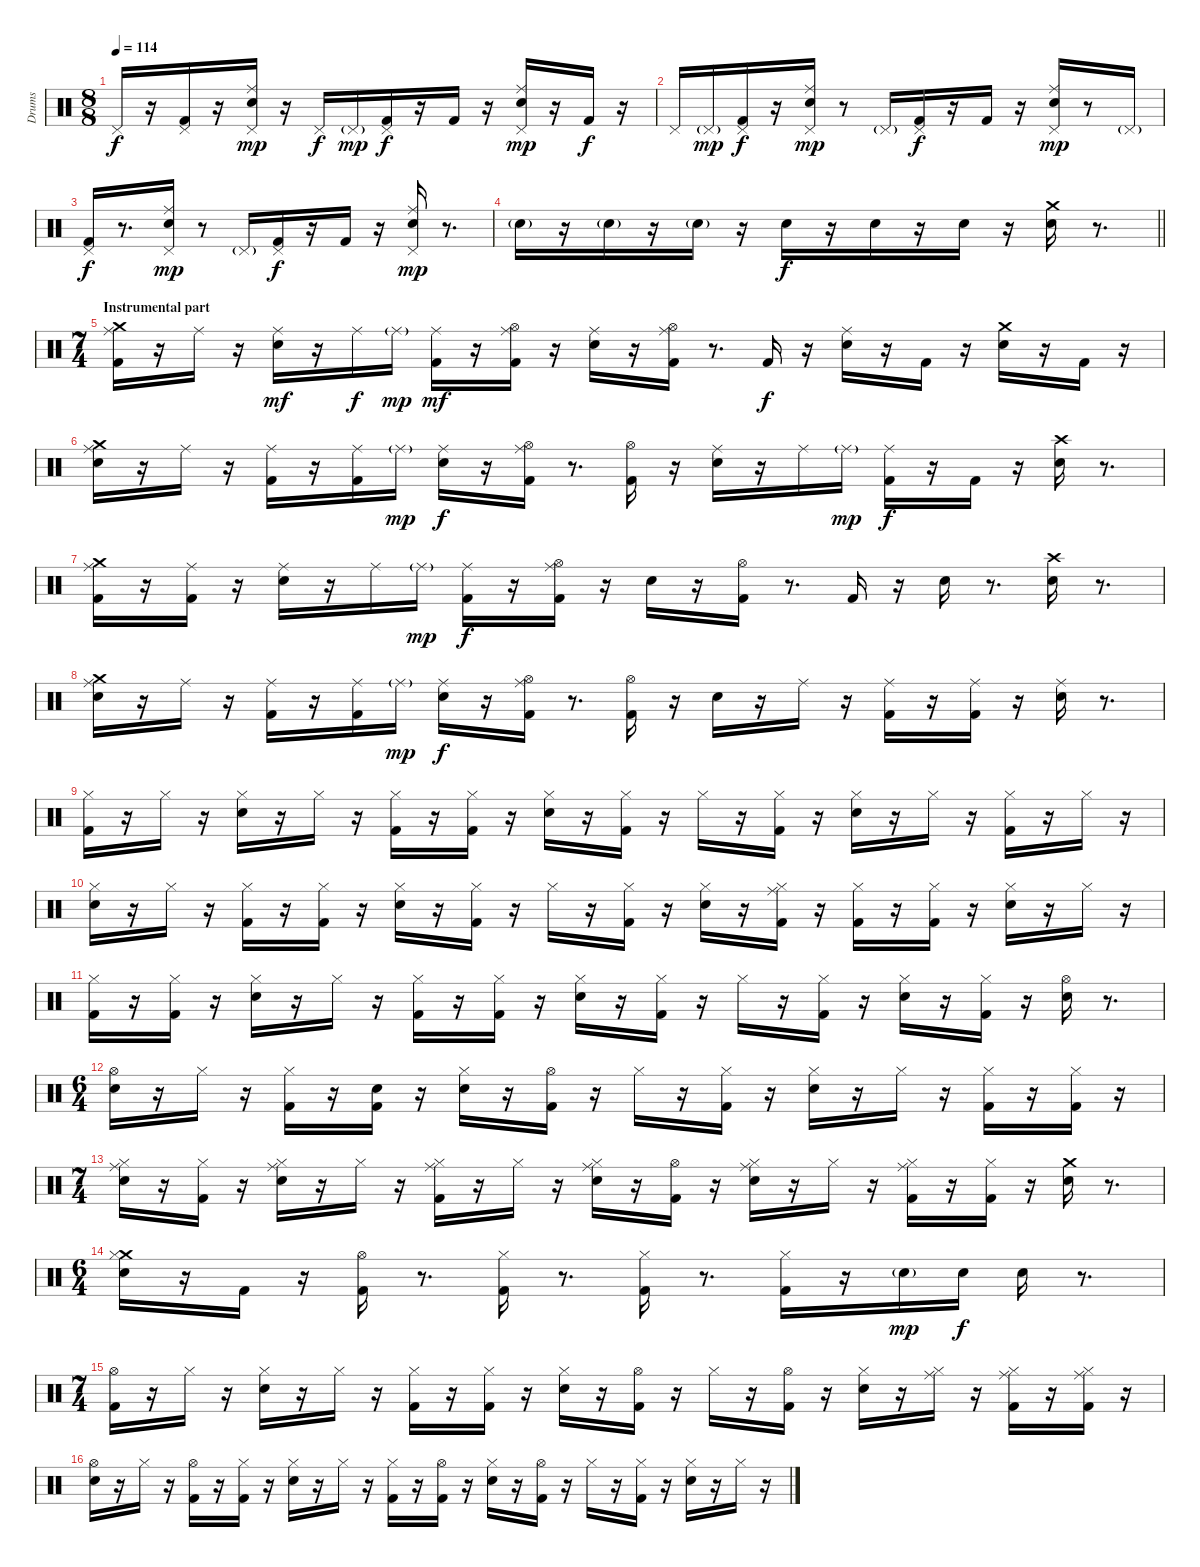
\track ("Drums" "Drums") {instrument percussion}
\staff {score}
\articulation defaults
\ts (8 8)
\tempo 114
\clef neutral
\ks c "Pedal Hi-Hat (hit)".16{dy f}
r.16 ("Pedal Hi-Hat (hit)" "Kick (hit) 2").16 r.16 ("Ride (middle)" "Pedal Hi-Hat (hit)" "Snare (hit) 2").16{dy mp} r.16 "Pedal Hi-Hat (hit)".16{dy f} "Pedal Hi-Hat (hit)"{g}.16{dy mp} ("Pedal Hi-Hat (hit)" "Kick (hit) 2").16{dy f} r.16 "Kick (hit) 2".16 r.16 ("Ride (middle)" "Pedal Hi-Hat (hit)" "Snare (hit) 2").16{dy mp} r.16 "Kick (hit) 2".16{dy f} r.16 |
"Pedal Hi-Hat (hit)".16 "Pedal Hi-Hat (hit)"{g}.16{dy mp} ("Pedal Hi-Hat (hit)" "Kick (hit) 2").16{dy f} r.16 ("Ride (middle)" "Pedal Hi-Hat (hit)" "Snare (hit) 2").16{dy mp} r.8 "Pedal Hi-Hat (hit)"{g}.16 ("Pedal Hi-Hat (hit)" "Kick (hit) 2").16{dy f} r.16 "Kick (hit) 2".16 r.16 ("Ride (middle)" "Pedal Hi-Hat (hit)" "Snare (hit) 2").16{dy mp} r.8 "Pedal Hi-Hat (hit)"{g}.16 |
("Pedal Hi-Hat (hit)" "Kick (hit) 2").16{dy f} r.8{d} ("Ride (middle)" "Pedal Hi-Hat (hit)" "Snare (hit) 2").16{dy mp} r.8 "Pedal Hi-Hat (hit)"{g}.16 ("Pedal Hi-Hat (hit)" "Kick (hit) 2").16{dy f} r.16 "Kick (hit) 2".16 r.16 ("Ride (middle)" "Pedal Hi-Hat (hit)" "Snare (hit) 2").16{dy mp} r.8{d} |
\barLineRight lightlight "Snare (hit) 2"{g}.16
r.16 "Snare (hit) 2"{g}.16 r.16 "Snare (hit) 2"{g}.16 r.16 "Snare (hit) 2".16{dy f} r.16 "Snare (hit) 2".16 r.16 "Snare (hit) 2".16 r.16 ("Crash medium (hit)" "Snare (hit) 2").16 r.8{d} |
\ts (7 4)
\section ("" "Instrumental part")
("Crash medium (hit)" "Ride (middle)" "Kick (hit) 2").16 r.16 "Ride (middle)".16 r.16 ("Ride (middle)" "Snare (hit) 2").16{dy mf} r.16 "Ride (middle)".16{dy f} "Ride (middle)"{g}.16{dy mp} ("Ride (middle)" "Kick (hit) 2").16{dy mf} r.16 ("Ride (middle)" "Hi-Hat (open)" "Kick (hit) 2").16 r.16 ("Ride (middle)" "Snare (hit) 2").16 r.16 ("Ride (middle)" "Hi-Hat (open)" "Kick (hit) 2").16 r.8{d} "Kick (hit) 2".16{dy f} r.16 ("Ride (middle)" "Snare (hit) 2").16 r.16 "Kick (hit) 2".16 r.16 ("Crash medium (hit)" "Snare (hit) 2").16 r.16 "Kick (hit) 2".16 r.16 |
("Crash medium (hit)" "Ride (middle)" "Snare (hit) 2").16 r.16 "Ride (middle)".16 r.16 ("Ride (middle)" "Kick (hit) 2").16 r.16 ("Ride (middle)" "Kick (hit) 2").16 "Ride (middle)"{g}.16{dy mp} ("Ride (middle)" "Snare (hit) 2").16{dy f} r.16 ("Ride (middle)" "Hi-Hat (open)" "Kick (hit) 2").16 r.8{d} ("Hi-Hat (open)" "Kick (hit) 2").16 r.16 ("Ride (middle)" "Snare (hit) 2").16 r.16 "Ride (middle)".16 "Ride (middle)"{g}.16{dy mp} ("Ride (middle)" "Kick (hit) 2").16{dy f} r.16 "Kick (hit) 2".16 r.16 ("Crash high (hit)" "Snare (hit) 2").16 r.8{d} |
("Crash medium (hit)" "Ride (middle)" "Kick (hit) 2").16 r.16 ("Ride (middle)" "Kick (hit) 2").16 r.16 ("Ride (middle)" "Snare (hit) 2").16 r.16 "Ride (middle)".16 "Ride (middle)"{g}.16{dy mp} ("Ride (middle)" "Kick (hit) 2").16{dy f} r.16 ("Ride (middle)" "Hi-Hat (open)" "Kick (hit) 2").16 r.16 "Snare (hit) 2".16 r.16 ("Hi-Hat (open)" "Kick (hit) 2").16 r.8{d} "Kick (hit) 2".16 r.16 "Snare (hit) 2".16 r.8{d} ("Crash high (hit)" "Snare (hit) 2").16 r.8{d} |
("Crash medium (hit)" "Ride (middle)" "Snare (hit) 2").16 r.16 "Ride (middle)".16 r.16 ("Ride (middle)" "Kick (hit) 2").16 r.16 ("Ride (middle)" "Kick (hit) 2").16 "Ride (middle)"{g}.16{dy mp} ("Ride (middle)" "Snare (hit) 2").16{dy f} r.16 ("Ride (middle)" "Hi-Hat (open)" "Kick (hit) 2").16 r.8{d} ("Hi-Hat (open)" "Kick (hit) 2").16 r.16 "Snare (hit) 2".16 r.16 "Ride (middle)".16 r.16 ("Ride (middle)" "Kick (hit) 2").16 r.16 ("Ride (middle)" "Kick (hit) 2").16 r.16 ("Ride (middle)" "Snare (hit) 2").16 r.8{d} |
("Hi-Hat (closed)" "Kick (hit) 2").16 r.16 "Hi-Hat (closed)".16 r.16 ("Hi-Hat (closed)" "Snare (hit) 2").16 r.16 "Hi-Hat (closed)".16 r.16 ("Hi-Hat (closed)" "Kick (hit) 2").16 r.16 ("Hi-Hat (closed)" "Kick (hit) 2").16 r.16 ("Hi-Hat (closed)" "Snare (hit) 2").16 r.16 ("Hi-Hat (closed)" "Kick (hit) 2").16 r.16 "Hi-Hat (closed)".16 r.16 ("Hi-Hat (closed)" "Kick (hit) 2").16 r.16 ("Hi-Hat (closed)" "Snare (hit) 2").16 r.16 "Hi-Hat (closed)".16 r.16 ("Hi-Hat (closed)" "Kick (hit) 2").16 r.16 "Hi-Hat (closed)".16 r.16 |
("Hi-Hat (closed)" "Snare (hit) 2").16 r.16 "Hi-Hat (closed)".16 r.16 ("Hi-Hat (closed)" "Kick (hit) 2").16 r.16 ("Hi-Hat (closed)" "Kick (hit) 2").16 r.16 ("Hi-Hat (closed)" "Snare (hit) 2").16 r.16 ("Hi-Hat (closed)" "Kick (hit) 2").16 r.16 "Hi-Hat (closed)".16 r.16 ("Hi-Hat (closed)" "Kick (hit) 2").16 r.16 ("Hi-Hat (closed)" "Snare (hit) 2").16 r.16 ("Ride (middle)" "Hi-Hat (closed)" "Kick (hit) 2").16 r.16 ("Hi-Hat (closed)" "Kick (hit) 2").16 r.16 ("Hi-Hat (closed)" "Kick (hit) 2").16 r.16 ("Hi-Hat (closed)" "Snare (hit) 2").16 r.16 "Hi-Hat (closed)".16 r.16 |
("Hi-Hat (closed)" "Kick (hit) 2").16 r.16 ("Hi-Hat (closed)" "Kick (hit) 2").16 r.16 ("Hi-Hat (closed)" "Snare (hit) 2").16 r.16 "Hi-Hat (closed)".16 r.16 ("Hi-Hat (closed)" "Kick (hit) 2").16 r.16 ("Hi-Hat (closed)" "Kick (hit) 2").16 r.16 ("Hi-Hat (closed)" "Snare (hit) 2").16 r.16 ("Hi-Hat (closed)" "Kick (hit) 2").16 r.16 "Hi-Hat (closed)".16 r.16 ("Hi-Hat (closed)" "Kick (hit) 2").16 r.16 ("Hi-Hat (closed)" "Snare (hit) 2").16 r.16 ("Hi-Hat (closed)" "Kick (hit) 2").16 r.16 ("Hi-Hat (open)" "Snare (hit) 2").16 r.8{d} |
\ts (6 4)
("Hi-Hat (open)" "Snare (hit) 2").16 r.16 "Hi-Hat (closed)".16 r.16 ("Hi-Hat (closed)" "Kick (hit) 2").16 r.16 ("Snare (hit)" "Kick (hit) 2").16 r.16 ("Hi-Hat (closed)" "Snare (hit) 2").16 r.16 ("Hi-Hat (open)" "Kick (hit) 2").16 r.16 "Hi-Hat (closed)".16 r.16 ("Hi-Hat (closed)" "Kick (hit) 2").16 r.16 ("Hi-Hat (closed)" "Snare (hit) 2").16 r.16 "Hi-Hat (closed)".16 r.16 ("Hi-Hat (closed)" "Kick (hit) 2").16 r.16 ("Hi-Hat (closed)" "Kick (hit) 2").16 r.16 |
\ts (7 4)
("Ride (middle)" "Hi-Hat (closed)" "Snare (hit) 2").16 r.16 ("Hi-Hat (closed)" "Kick (hit) 2").16 r.16 ("Ride (middle)" "Hi-Hat (closed)" "Snare (hit) 2").16 r.16 "Hi-Hat (closed)".16 r.16 ("Ride (middle)" "Hi-Hat (closed)" "Kick (hit) 2").16 r.16 "Hi-Hat (closed)".16 r.16 ("Ride (middle)" "Hi-Hat (closed)" "Snare (hit) 2").16 r.16 ("Hi-Hat (open)" "Kick (hit) 2").16 r.16 ("Ride (middle)" "Hi-Hat (closed)" "Snare (hit) 2").16 r.16 "Hi-Hat (closed)".16 r.16 ("Ride (middle)" "Hi-Hat (closed)" "Kick (hit) 2").16 r.16 ("Hi-Hat (closed)" "Kick (hit) 2").16 r.16 ("Crash medium (hit)" "Snare (hit) 2").16 r.8{d} |
\ts (6 4)
("Crash medium (hit)" "Hi-Hat (closed)" "Snare (hit) 2").16 r.16 "Kick (hit) 2".16 r.16 ("Hi-Hat (open)" "Kick (hit) 2").16 r.8{d} ("Hi-Hat (closed)" "Kick (hit) 2").16 r.8{d} ("Hi-Hat (closed)" "Kick (hit) 2").16 r.8{d} ("Hi-Hat (closed)" "Kick (hit) 2").16 r.16 "Snare (hit) 2"{g}.16{dy mp} "Snare (hit) 2".16{dy f} "Snare (hit) 2".16 r.8{d} |
\ts (7 4)
("Hi-Hat (open)" "Kick (hit) 2").16 r.16 "Hi-Hat (closed)".16 r.16 ("Hi-Hat (closed)" "Snare (hit) 2").16 r.16 "Hi-Hat (closed)".16 r.16 ("Hi-Hat (closed)" "Kick (hit) 2").16 r.16 ("Hi-Hat (closed)" "Kick (hit) 2").16 r.16 ("Hi-Hat (closed)" "Snare (hit) 2").16 r.16 ("Hi-Hat (open)" "Kick (hit) 2").16 r.16 "Hi-Hat (closed)".16 r.16 ("Hi-Hat (open)" "Kick (hit) 2").16 r.16 ("Hi-Hat (closed)" "Snare (hit) 2").16 r.16 ("Ride (middle)" "Hi-Hat (closed)").16 r.16 ("Ride (middle)" "Hi-Hat (closed)" "Kick (hit) 2").16 r.16 ("Ride (middle)" "Hi-Hat (closed)" "Kick (hit) 2").16 r.16 |
("Hi-Hat (open)" "Snare (hit) 2").16 r.16 "Hi-Hat (closed)".16 r.16 ("Hi-Hat (open)" "Kick (hit) 2").16 r.16 ("Hi-Hat (closed)" "Kick (hit) 2").16 r.16 ("Hi-Hat (closed)" "Snare (hit) 2").16 r.16 "Hi-Hat (closed)".16 r.16 ("Hi-Hat (closed)" "Kick (hit) 2").16 r.16 ("Hi-Hat (open)" "Kick (hit) 2").16 r.16 ("Hi-Hat (closed)" "Snare (hit) 2").16 r.16 ("Hi-Hat (open)" "Kick (hit) 2").16 r.16 "Hi-Hat (closed)".16 r.16 ("Hi-Hat (closed)" "Kick (hit) 2").16 r.16 ("Hi-Hat (closed)" "Snare (hit) 2").16 r.16 "Hi-Hat (closed)".16 r.16
